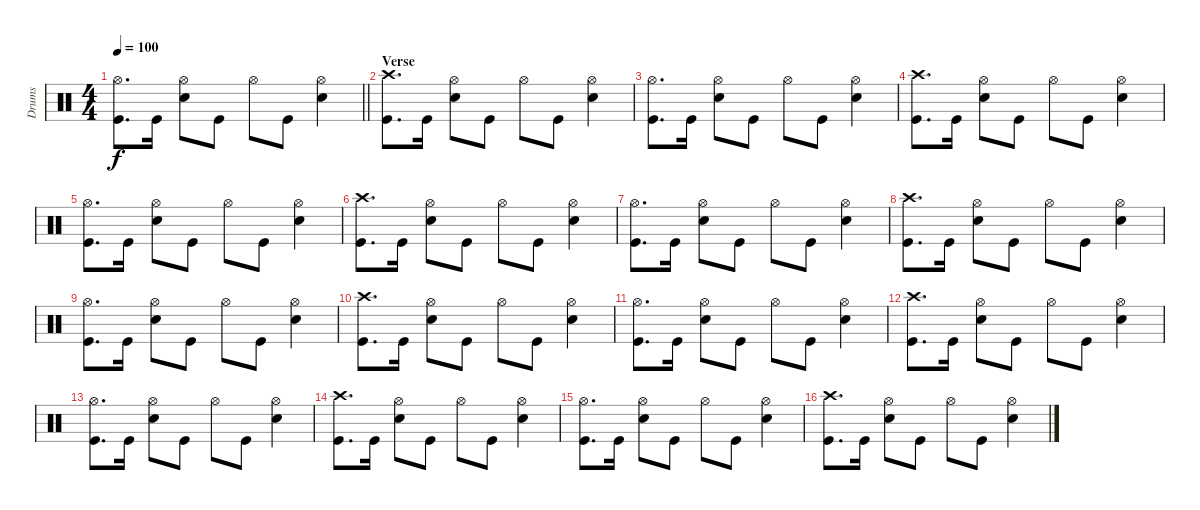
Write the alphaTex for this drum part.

\track ("Drums" "Drums") {instrument percussion}
\staff {score}
\articulation defaults
\ts (4 4)
\tempo 100
\clef neutral
\barLineRight lightlight
\ks c
("Hi-Hat (open)" "Kick (hit)").8{d dy f} "Kick (hit)".16 ("Hi-Hat (open)" "Snare (hit) 2").8 "Kick (hit)".8 "Hi-Hat (open)".8 "Kick (hit)".8 ("Hi-Hat (open)" "Snare (hit) 2").4 |
\section ("" "Verse")
("Crash high (hit)" "Kick (hit)").8{d} "Kick (hit)".16 ("Hi-Hat (open)" "Snare (hit) 2").8 "Kick (hit)".8 "Hi-Hat (open)".8 "Kick (hit)".8 ("Hi-Hat (open)" "Snare (hit) 2").4 |
("Hi-Hat (open)" "Kick (hit)").8{d} "Kick (hit)".16 ("Hi-Hat (open)" "Snare (hit) 2").8 "Kick (hit)".8 "Hi-Hat (open)".8 "Kick (hit)".8 ("Hi-Hat (open)" "Snare (hit) 2").4 |
("Crash high (hit)" "Kick (hit)").8{d} "Kick (hit)".16 ("Hi-Hat (open)" "Snare (hit) 2").8 "Kick (hit)".8 "Hi-Hat (open)".8 "Kick (hit)".8 ("Hi-Hat (open)" "Snare (hit) 2").4 |
("Hi-Hat (open)" "Kick (hit)").8{d} "Kick (hit)".16 ("Hi-Hat (open)" "Snare (hit) 2").8 "Kick (hit)".8 "Hi-Hat (open)".8 "Kick (hit)".8 ("Hi-Hat (open)" "Snare (hit) 2").4 |
("Crash high (hit)" "Kick (hit)").8{d} "Kick (hit)".16 ("Hi-Hat (open)" "Snare (hit) 2").8 "Kick (hit)".8 "Hi-Hat (open)".8 "Kick (hit)".8 ("Hi-Hat (open)" "Snare (hit) 2").4 |
("Hi-Hat (open)" "Kick (hit)").8{d} "Kick (hit)".16 ("Hi-Hat (open)" "Snare (hit) 2").8 "Kick (hit)".8 "Hi-Hat (open)".8 "Kick (hit)".8 ("Hi-Hat (open)" "Snare (hit) 2").4 |
("Crash high (hit)" "Kick (hit)").8{d} "Kick (hit)".16 ("Hi-Hat (open)" "Snare (hit) 2").8 "Kick (hit)".8 "Hi-Hat (open)".8 "Kick (hit)".8 ("Hi-Hat (open)" "Snare (hit) 2").4 |
("Hi-Hat (open)" "Kick (hit)").8{d} "Kick (hit)".16 ("Hi-Hat (open)" "Snare (hit) 2").8 "Kick (hit)".8 "Hi-Hat (open)".8 "Kick (hit)".8 ("Hi-Hat (open)" "Snare (hit) 2").4 |
("Crash high (hit)" "Kick (hit)").8{d} "Kick (hit)".16 ("Hi-Hat (open)" "Snare (hit) 2").8 "Kick (hit)".8 "Hi-Hat (open)".8 "Kick (hit)".8 ("Hi-Hat (open)" "Snare (hit) 2").4 |
("Hi-Hat (open)" "Kick (hit)").8{d} "Kick (hit)".16 ("Hi-Hat (open)" "Snare (hit) 2").8 "Kick (hit)".8 "Hi-Hat (open)".8 "Kick (hit)".8 ("Hi-Hat (open)" "Snare (hit) 2").4 |
("Crash high (hit)" "Kick (hit)").8{d} "Kick (hit)".16 ("Hi-Hat (open)" "Snare (hit) 2").8 "Kick (hit)".8 "Hi-Hat (open)".8 "Kick (hit)".8 ("Hi-Hat (open)" "Snare (hit) 2").4 |
("Hi-Hat (open)" "Kick (hit)").8{d} "Kick (hit)".16 ("Hi-Hat (open)" "Snare (hit) 2").8 "Kick (hit)".8 "Hi-Hat (open)".8 "Kick (hit)".8 ("Hi-Hat (open)" "Snare (hit) 2").4 |
("Crash high (hit)" "Kick (hit)").8{d} "Kick (hit)".16 ("Hi-Hat (open)" "Snare (hit) 2").8 "Kick (hit)".8 "Hi-Hat (open)".8 "Kick (hit)".8 ("Hi-Hat (open)" "Snare (hit) 2").4 |
("Hi-Hat (open)" "Kick (hit)").8{d} "Kick (hit)".16 ("Hi-Hat (open)" "Snare (hit) 2").8 "Kick (hit)".8 "Hi-Hat (open)".8 "Kick (hit)".8 ("Hi-Hat (open)" "Snare (hit) 2").4 |
("Crash high (hit)" "Kick (hit)").8{d} "Kick (hit)".16 ("Hi-Hat (open)" "Snare (hit) 2").8 "Kick (hit)".8 "Hi-Hat (open)".8 "Kick (hit)".8 ("Hi-Hat (open)" "Snare (hit) 2").4
